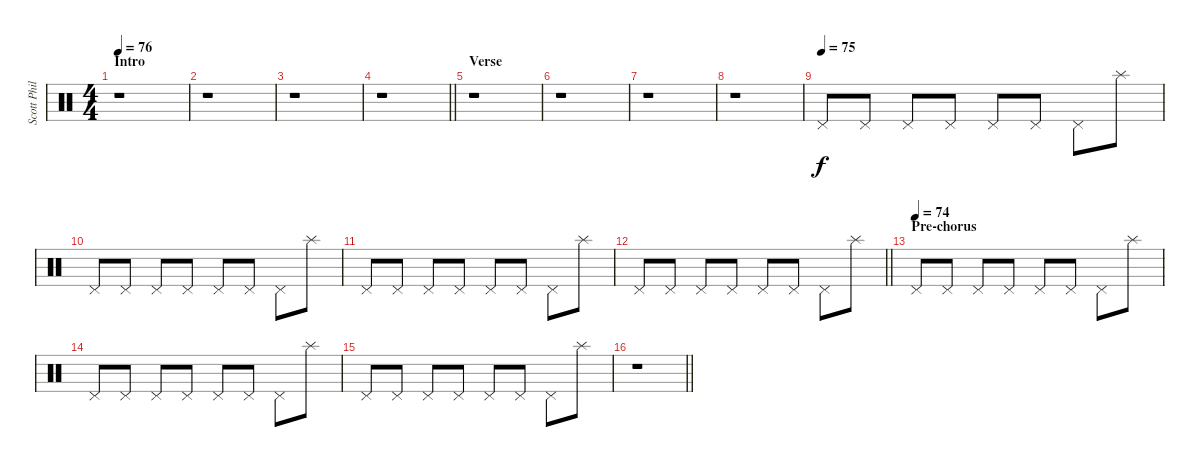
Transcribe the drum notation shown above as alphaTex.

\track ("Scott Phillips (Drums)" "Scott Phil") {instrument percussion}
\staff {score}
\articulation defaults
\ts (4 4)
\section ("" "Intro")
\tempo 76
\clef neutral
\ks c
r.1{dy f} |
r.1 |
r.1 |
\barLineRight lightlight
r.1 |
\section ("" "Verse")
r.1 |
r.1 |
r.1 |
r.1 |
\tempo (75)
"Pedal Hi-Hat (hit)".8 "Pedal Hi-Hat (hit)".8 "Pedal Hi-Hat (hit)".8 "Pedal Hi-Hat (hit)".8 "Pedal Hi-Hat (hit)".8 "Pedal Hi-Hat (hit)".8 "Pedal Hi-Hat (hit)".8 "Splash (hit)".8 |
"Pedal Hi-Hat (hit)".8 "Pedal Hi-Hat (hit)".8 "Pedal Hi-Hat (hit)".8 "Pedal Hi-Hat (hit)".8 "Pedal Hi-Hat (hit)".8 "Pedal Hi-Hat (hit)".8 "Pedal Hi-Hat (hit)".8 "Splash (hit)".8 |
"Pedal Hi-Hat (hit)".8 "Pedal Hi-Hat (hit)".8 "Pedal Hi-Hat (hit)".8 "Pedal Hi-Hat (hit)".8 "Pedal Hi-Hat (hit)".8 "Pedal Hi-Hat (hit)".8 "Pedal Hi-Hat (hit)".8 "Splash (hit)".8 |
\barLineRight lightlight "Pedal Hi-Hat (hit)".8 "Pedal Hi-Hat (hit)".8 "Pedal Hi-Hat (hit)".8 "Pedal Hi-Hat (hit)".8 "Pedal Hi-Hat (hit)".8 "Pedal Hi-Hat (hit)".8 "Pedal Hi-Hat (hit)".8 "Splash (hit)".8
|
\section ("" "Pre-chorus")
\tempo (74)
"Pedal Hi-Hat (hit)".8 "Pedal Hi-Hat (hit)".8 "Pedal Hi-Hat (hit)".8 "Pedal Hi-Hat (hit)".8 "Pedal Hi-Hat (hit)".8 "Pedal Hi-Hat (hit)".8 "Pedal Hi-Hat (hit)".8 "Splash (hit)".8 |
"Pedal Hi-Hat (hit)".8 "Pedal Hi-Hat (hit)".8 "Pedal Hi-Hat (hit)".8 "Pedal Hi-Hat (hit)".8 "Pedal Hi-Hat (hit)".8 "Pedal Hi-Hat (hit)".8 "Pedal Hi-Hat (hit)".8 "Splash (hit)".8 |
"Pedal Hi-Hat (hit)".8 "Pedal Hi-Hat (hit)".8 "Pedal Hi-Hat (hit)".8 "Pedal Hi-Hat (hit)".8 "Pedal Hi-Hat (hit)".8 "Pedal Hi-Hat (hit)".8 "Pedal Hi-Hat (hit)".8 "Splash (hit)".8 |
\barLineRight lightlight
r.1
